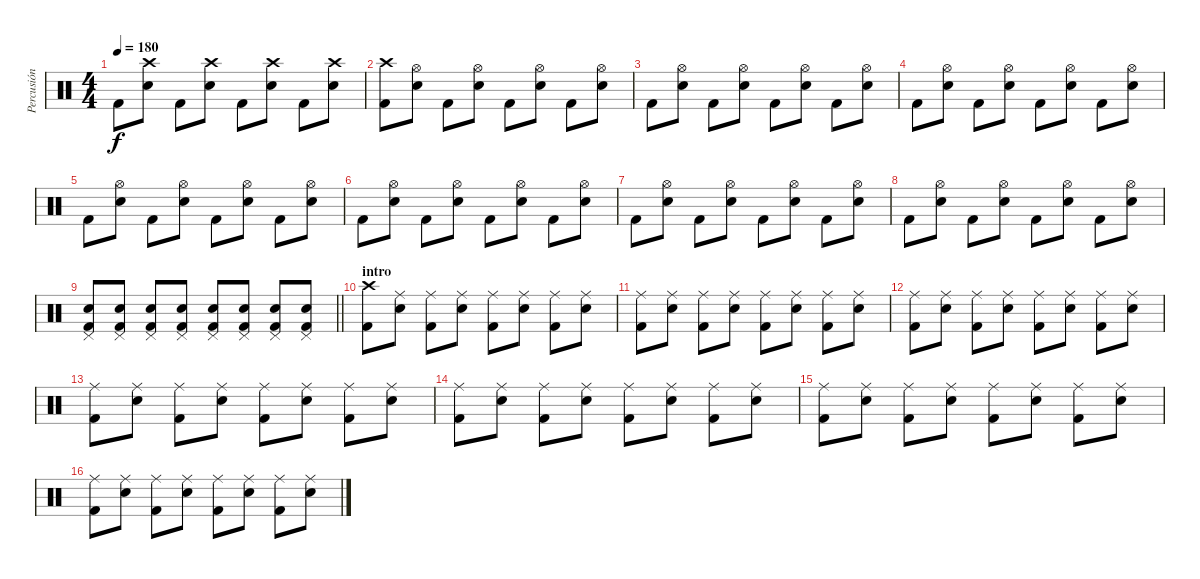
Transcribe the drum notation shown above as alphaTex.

\track ("Percusión" "Percusión") {instrument percussion}
\staff {score}
\articulation defaults
\ts (4 4)
\tempo 180
\clef neutral
\ks c "Kick (hit) 2".8{dy f}
("Crash high (hit)" "Electric Snare (hit)").8 "Kick (hit) 2".8 ("Crash high (hit)" "Electric Snare (hit)").8 "Kick (hit) 2".8 ("Crash high (hit)" "Electric Snare (hit)").8 "Kick (hit) 2".8 ("Crash high (hit)" "Electric Snare (hit)").8 |
("Crash high (hit)" "Kick (hit) 2").8 ("Hi-Hat (open)" "Electric Snare (hit)").8 "Kick (hit) 2".8 ("Hi-Hat (open)" "Electric Snare (hit)").8 "Kick (hit) 2".8 ("Hi-Hat (open)" "Electric Snare (hit)").8 "Kick (hit) 2".8 ("Hi-Hat (open)" "Electric Snare (hit)").8 |
"Kick (hit) 2".8 ("Hi-Hat (open)" "Electric Snare (hit)").8 "Kick (hit) 2".8 ("Hi-Hat (open)" "Electric Snare (hit)").8 "Kick (hit) 2".8 ("Hi-Hat (open)" "Electric Snare (hit)").8 "Kick (hit) 2".8 ("Hi-Hat (open)" "Electric Snare (hit)").8 |
"Kick (hit) 2".8 ("Hi-Hat (open)" "Electric Snare (hit)").8 "Kick (hit) 2".8 ("Hi-Hat (open)" "Electric Snare (hit)").8 "Kick (hit) 2".8 ("Hi-Hat (open)" "Electric Snare (hit)").8 "Kick (hit) 2".8 ("Hi-Hat (open)" "Electric Snare (hit)").8 |
"Kick (hit) 2".8 ("Hi-Hat (open)" "Electric Snare (hit)").8 "Kick (hit) 2".8 ("Hi-Hat (open)" "Electric Snare (hit)").8 "Kick (hit) 2".8 ("Hi-Hat (open)" "Electric Snare (hit)").8 "Kick (hit) 2".8 ("Hi-Hat (open)" "Electric Snare (hit)").8 |
"Kick (hit) 2".8 ("Hi-Hat (open)" "Electric Snare (hit)").8 "Kick (hit) 2".8 ("Hi-Hat (open)" "Electric Snare (hit)").8 "Kick (hit) 2".8 ("Hi-Hat (open)" "Electric Snare (hit)").8 "Kick (hit) 2".8 ("Hi-Hat (open)" "Electric Snare (hit)").8 |
"Kick (hit) 2".8 ("Hi-Hat (open)" "Electric Snare (hit)").8 "Kick (hit) 2".8 ("Hi-Hat (open)" "Electric Snare (hit)").8 "Kick (hit) 2".8 ("Hi-Hat (open)" "Electric Snare (hit)").8 "Kick (hit) 2".8 ("Hi-Hat (open)" "Electric Snare (hit)").8 |
"Kick (hit) 2".8 ("Hi-Hat (open)" "Electric Snare (hit)").8 "Kick (hit) 2".8 ("Hi-Hat (open)" "Electric Snare (hit)").8 "Kick (hit) 2".8 ("Hi-Hat (open)" "Electric Snare (hit)").8 "Kick (hit) 2".8 ("Hi-Hat (open)" "Electric Snare (hit)").8 |
\barLineRight lightlight
("Pedal Hi-Hat (hit)" "Electric Snare (hit)" "Kick (hit) 2").8 ("Pedal Hi-Hat (hit)" "Electric Snare (hit)" "Kick (hit) 2").8 ("Pedal Hi-Hat (hit)" "Electric Snare (hit)" "Kick (hit) 2").8 ("Pedal Hi-Hat (hit)" "Electric Snare (hit)" "Kick (hit) 2").8 ("Pedal Hi-Hat (hit)" "Electric Snare (hit)" "Kick (hit) 2").8 ("Pedal Hi-Hat (hit)" "Electric Snare (hit)" "Kick (hit) 2").8 ("Pedal Hi-Hat (hit)" "Electric Snare (hit)" "Kick (hit) 2").8 ("Pedal Hi-Hat (hit)" "Electric Snare (hit)" "Kick (hit) 2").8 |
\section ("" "intro")
("Crash high (hit)" "Kick (hit) 2").8 ("Ride (middle)" "Electric Snare (hit)").8 ("Ride (middle)" "Kick (hit) 2").8 ("Ride (middle)" "Electric Snare (hit)").8 ("Ride (middle)" "Kick (hit) 2").8 ("Ride (middle)" "Electric Snare (hit)").8 ("Ride (middle)" "Kick (hit) 2").8 ("Ride (middle)" "Electric Snare (hit)").8 |
("Ride (middle)" "Kick (hit) 2").8 ("Ride (middle)" "Electric Snare (hit)").8 ("Ride (middle)" "Kick (hit) 2").8 ("Ride (middle)" "Electric Snare (hit)").8 ("Ride (middle)" "Kick (hit) 2").8 ("Ride (middle)" "Electric Snare (hit)").8 ("Ride (middle)" "Kick (hit) 2").8 ("Ride (middle)" "Electric Snare (hit)").8 |
("Ride (middle)" "Kick (hit) 2").8 ("Ride (middle)" "Electric Snare (hit)").8 ("Ride (middle)" "Kick (hit) 2").8 ("Ride (middle)" "Electric Snare (hit)").8 ("Ride (middle)" "Kick (hit) 2").8 ("Ride (middle)" "Electric Snare (hit)").8 ("Ride (middle)" "Kick (hit) 2").8 ("Ride (middle)" "Electric Snare (hit)").8 |
("Ride (middle)" "Kick (hit) 2").8 ("Ride (middle)" "Electric Snare (hit)").8 ("Ride (middle)" "Kick (hit) 2").8 ("Ride (middle)" "Electric Snare (hit)").8 ("Ride (middle)" "Kick (hit) 2").8 ("Ride (middle)" "Electric Snare (hit)").8 ("Ride (middle)" "Kick (hit) 2").8 ("Ride (middle)" "Electric Snare (hit)").8 |
("Ride (middle)" "Kick (hit) 2").8 ("Ride (middle)" "Electric Snare (hit)").8 ("Ride (middle)" "Kick (hit) 2").8 ("Ride (middle)" "Electric Snare (hit)").8 ("Ride (middle)" "Kick (hit) 2").8 ("Ride (middle)" "Electric Snare (hit)").8 ("Ride (middle)" "Kick (hit) 2").8 ("Ride (middle)" "Electric Snare (hit)").8 |
("Ride (middle)" "Kick (hit) 2").8 ("Ride (middle)" "Electric Snare (hit)").8 ("Ride (middle)" "Kick (hit) 2").8 ("Ride (middle)" "Electric Snare (hit)").8 ("Ride (middle)" "Kick (hit) 2").8 ("Ride (middle)" "Electric Snare (hit)").8 ("Ride (middle)" "Kick (hit) 2").8 ("Ride (middle)" "Electric Snare (hit)").8 |
("Ride (middle)" "Kick (hit) 2").8 ("Ride (middle)" "Electric Snare (hit)").8 ("Ride (middle)" "Kick (hit) 2").8 ("Ride (middle)" "Electric Snare (hit)").8 ("Ride (middle)" "Kick (hit) 2").8 ("Ride (middle)" "Electric Snare (hit)").8 ("Ride (middle)" "Kick (hit) 2").8 ("Ride (middle)" "Electric Snare (hit)").8
